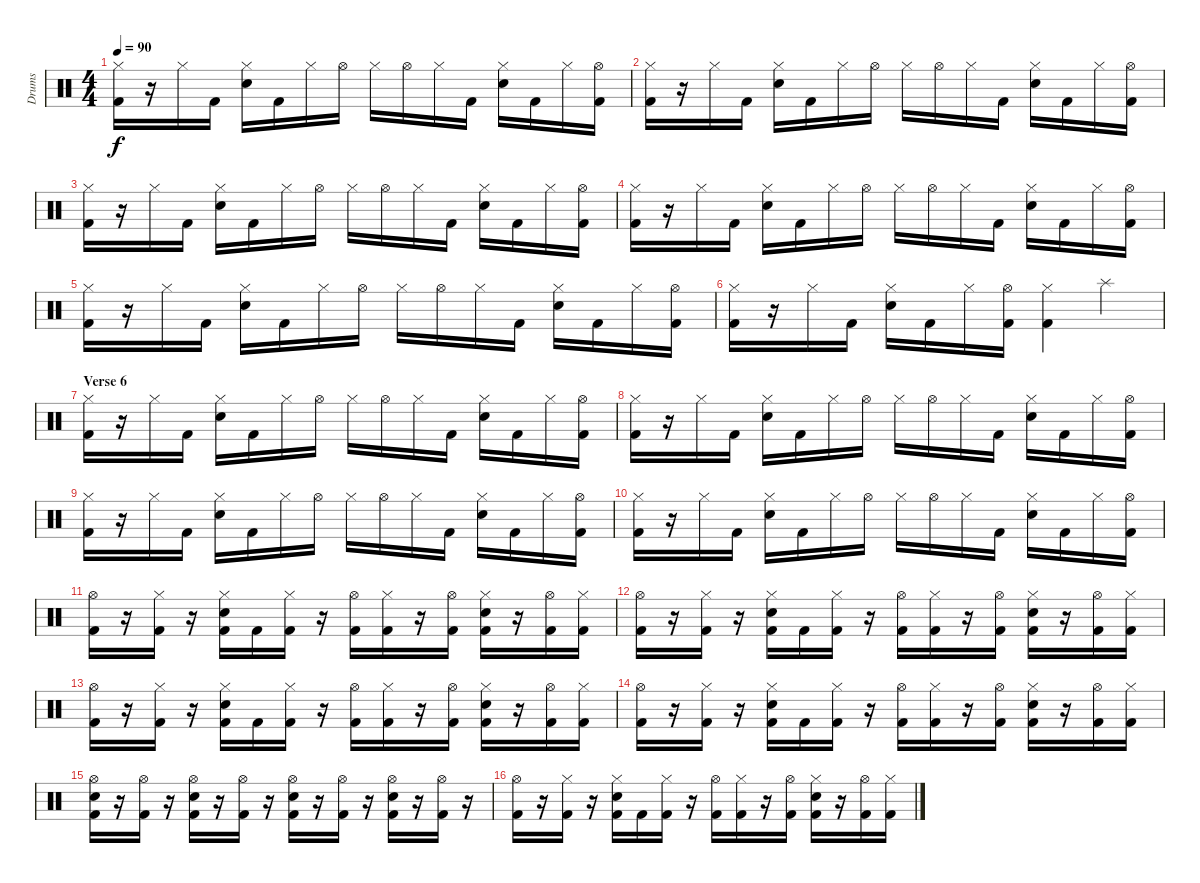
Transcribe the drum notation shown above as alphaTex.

\track ("Drums" "Drums") {instrument percussion}
\staff {score}
\articulation defaults
\ts (4 4)
\tempo 90
\clef neutral
\ks c
("Hi-Hat (closed)" "Kick (hit) 2").16{dy f} r.16 "Hi-Hat (closed)".16 "Kick (hit) 2".16 ("Hi-Hat (closed)" "Snare (hit) 2").16 "Kick (hit) 2".16 "Hi-Hat (closed)".16 "Hi-Hat (open)".16 "Hi-Hat (closed)".16 "Hi-Hat (open)".16 "Hi-Hat (closed)".16 "Kick (hit) 2".16 ("Hi-Hat (closed)" "Snare (hit) 2").16 "Kick (hit) 2".16 "Hi-Hat (closed)".16 ("Hi-Hat (open)" "Kick (hit) 2").16 |
("Hi-Hat (closed)" "Kick (hit) 2").16 r.16 "Hi-Hat (closed)".16 "Kick (hit) 2".16 ("Hi-Hat (closed)" "Snare (hit) 2").16 "Kick (hit) 2".16 "Hi-Hat (closed)".16 "Hi-Hat (open)".16 "Hi-Hat (closed)".16 "Hi-Hat (open)".16 "Hi-Hat (closed)".16 "Kick (hit) 2".16 ("Hi-Hat (closed)" "Snare (hit) 2").16 "Kick (hit) 2".16 "Hi-Hat (closed)".16 ("Hi-Hat (open)" "Kick (hit) 2").16 |
("Hi-Hat (closed)" "Kick (hit) 2").16 r.16 "Hi-Hat (closed)".16 "Kick (hit) 2".16 ("Hi-Hat (closed)" "Snare (hit) 2").16 "Kick (hit) 2".16 "Hi-Hat (closed)".16 "Hi-Hat (open)".16 "Hi-Hat (closed)".16 "Hi-Hat (open)".16 "Hi-Hat (closed)".16 "Kick (hit) 2".16 ("Hi-Hat (closed)" "Snare (hit) 2").16 "Kick (hit) 2".16 "Hi-Hat (closed)".16 ("Hi-Hat (open)" "Kick (hit) 2").16 |
("Hi-Hat (closed)" "Kick (hit) 2").16 r.16 "Hi-Hat (closed)".16 "Kick (hit) 2".16 ("Hi-Hat (closed)" "Snare (hit) 2").16 "Kick (hit) 2".16 "Hi-Hat (closed)".16 "Hi-Hat (open)".16 "Hi-Hat (closed)".16 "Hi-Hat (open)".16 "Hi-Hat (closed)".16 "Kick (hit) 2".16 ("Hi-Hat (closed)" "Snare (hit) 2").16 "Kick (hit) 2".16 "Hi-Hat (closed)".16 ("Hi-Hat (open)" "Kick (hit) 2").16 |
("Hi-Hat (closed)" "Kick (hit) 2").16 r.16 "Hi-Hat (closed)".16 "Kick (hit) 2".16 ("Hi-Hat (closed)" "Snare (hit) 2").16 "Kick (hit) 2".16 "Hi-Hat (closed)".16 "Hi-Hat (open)".16 "Hi-Hat (closed)".16 "Hi-Hat (open)".16 "Hi-Hat (closed)".16 "Kick (hit) 2".16 ("Hi-Hat (closed)" "Snare (hit) 2").16 "Kick (hit) 2".16 "Hi-Hat (closed)".16 ("Hi-Hat (open)" "Kick (hit) 2").16 |
("Hi-Hat (closed)" "Kick (hit) 2").16 r.16 "Hi-Hat (closed)".16 "Kick (hit) 2".16 ("Hi-Hat (closed)" "Snare (hit) 2").16 "Kick (hit) 2".16 "Hi-Hat (closed)".16 ("Hi-Hat (open)" "Kick (hit) 2").16 ("Hi-Hat (closed)" "Kick (hit) 2").4 "Splash (hit)".4 |
\section ("" "Verse 6")
("Hi-Hat (closed)" "Kick (hit) 2").16 r.16 "Hi-Hat (closed)".16 "Kick (hit) 2".16 ("Hi-Hat (closed)" "Snare (hit) 2").16 "Kick (hit) 2".16 "Hi-Hat (closed)".16 "Hi-Hat (open)".16 "Hi-Hat (closed)".16 "Hi-Hat (open)".16 "Hi-Hat (closed)".16 "Kick (hit) 2".16 ("Hi-Hat (closed)" "Snare (hit) 2").16 "Kick (hit) 2".16 "Hi-Hat (closed)".16 ("Hi-Hat (open)" "Kick (hit) 2").16 |
("Hi-Hat (closed)" "Kick (hit) 2").16 r.16 "Hi-Hat (closed)".16 "Kick (hit) 2".16 ("Hi-Hat (closed)" "Snare (hit) 2").16 "Kick (hit) 2".16 "Hi-Hat (closed)".16 "Hi-Hat (open)".16 "Hi-Hat (closed)".16 "Hi-Hat (open)".16 "Hi-Hat (closed)".16 "Kick (hit) 2".16 ("Hi-Hat (closed)" "Snare (hit) 2").16 "Kick (hit) 2".16 "Hi-Hat (closed)".16 ("Hi-Hat (open)" "Kick (hit) 2").16 |
("Hi-Hat (closed)" "Kick (hit) 2").16 r.16 "Hi-Hat (closed)".16 "Kick (hit) 2".16 ("Hi-Hat (closed)" "Snare (hit) 2").16 "Kick (hit) 2".16 "Hi-Hat (closed)".16 "Hi-Hat (open)".16 "Hi-Hat (closed)".16 "Hi-Hat (open)".16 "Hi-Hat (closed)".16 "Kick (hit) 2".16 ("Hi-Hat (closed)" "Snare (hit) 2").16 "Kick (hit) 2".16 "Hi-Hat (closed)".16 ("Hi-Hat (open)" "Kick (hit) 2").16 |
("Hi-Hat (closed)" "Kick (hit) 2").16 r.16 "Hi-Hat (closed)".16 "Kick (hit) 2".16 ("Hi-Hat (closed)" "Snare (hit) 2").16 "Kick (hit) 2".16 "Hi-Hat (closed)".16 "Hi-Hat (open)".16 "Hi-Hat (closed)".16 "Hi-Hat (open)".16 "Hi-Hat (closed)".16 "Kick (hit) 2".16 ("Hi-Hat (closed)" "Snare (hit) 2").16 "Kick (hit) 2".16 "Hi-Hat (closed)".16 ("Hi-Hat (open)" "Kick (hit) 2").16 |
("Hi-Hat (open)" "Kick (hit) 2").16 r.16 ("Hi-Hat (closed)" "Kick (hit) 2").16 r.16 ("Hi-Hat (closed)" "Snare (hit) 2" "Kick (hit) 2").16 "Kick (hit) 2".16 ("Hi-Hat (closed)" "Kick (hit) 2").16 r.16 ("Hi-Hat (open)" "Kick (hit) 2").16 ("Hi-Hat (closed)" "Kick (hit) 2").16 r.16 ("Hi-Hat (open)" "Kick (hit) 2").16 ("Hi-Hat (closed)" "Snare (hit) 2" "Kick (hit) 2").16 r.16 ("Hi-Hat (open)" "Kick (hit) 2").16 ("Hi-Hat (closed)" "Kick (hit) 2").16 |
("Hi-Hat (open)" "Kick (hit) 2").16 r.16 ("Hi-Hat (closed)" "Kick (hit) 2").16 r.16 ("Hi-Hat (closed)" "Snare (hit) 2" "Kick (hit) 2").16 "Kick (hit) 2".16 ("Hi-Hat (closed)" "Kick (hit) 2").16 r.16 ("Hi-Hat (open)" "Kick (hit) 2").16 ("Hi-Hat (closed)" "Kick (hit) 2").16 r.16 ("Hi-Hat (open)" "Kick (hit) 2").16 ("Hi-Hat (closed)" "Snare (hit) 2" "Kick (hit) 2").16 r.16 ("Hi-Hat (open)" "Kick (hit) 2").16 ("Hi-Hat (closed)" "Kick (hit) 2").16 |
("Hi-Hat (open)" "Kick (hit) 2").16 r.16 ("Hi-Hat (closed)" "Kick (hit) 2").16 r.16 ("Hi-Hat (closed)" "Snare (hit) 2" "Kick (hit) 2").16 "Kick (hit) 2".16 ("Hi-Hat (closed)" "Kick (hit) 2").16 r.16 ("Hi-Hat (open)" "Kick (hit) 2").16 ("Hi-Hat (closed)" "Kick (hit) 2").16 r.16 ("Hi-Hat (open)" "Kick (hit) 2").16 ("Hi-Hat (closed)" "Snare (hit) 2" "Kick (hit) 2").16 r.16 ("Hi-Hat (open)" "Kick (hit) 2").16 ("Hi-Hat (closed)" "Kick (hit) 2").16 |
("Hi-Hat (open)" "Kick (hit) 2").16 r.16 ("Hi-Hat (closed)" "Kick (hit) 2").16 r.16 ("Hi-Hat (closed)" "Snare (hit) 2" "Kick (hit) 2").16 "Kick (hit) 2".16 ("Hi-Hat (closed)" "Kick (hit) 2").16 r.16 ("Hi-Hat (open)" "Kick (hit) 2").16 ("Hi-Hat (closed)" "Kick (hit) 2").16 r.16 ("Hi-Hat (open)" "Kick (hit) 2").16 ("Hi-Hat (closed)" "Snare (hit) 2" "Kick (hit) 2").16 r.16 ("Hi-Hat (open)" "Kick (hit) 2").16 ("Hi-Hat (closed)" "Kick (hit) 2").16 |
("Hi-Hat (open)" "Snare (hit) 2" "Kick (hit) 2").16 r.16 ("Hi-Hat (open)" "Kick (hit) 2").16 r.16 ("Hi-Hat (open)" "Snare (hit) 2" "Kick (hit) 2").16 r.16 ("Hi-Hat (open)" "Kick (hit) 2").16 r.16 ("Hi-Hat (open)" "Snare (hit) 2" "Kick (hit) 2").16 r.16 ("Hi-Hat (open)" "Kick (hit) 2").16 r.16 ("Hi-Hat (open)" "Snare (hit) 2" "Kick (hit) 2").16 r.16 ("Hi-Hat (open)" "Kick (hit) 2").16 r.16 |
("Hi-Hat (open)" "Kick (hit) 2").16 r.16 ("Hi-Hat (closed)" "Kick (hit) 2").16 r.16 ("Hi-Hat (closed)" "Snare (hit) 2" "Kick (hit) 2").16 "Kick (hit) 2".16 ("Hi-Hat (closed)" "Kick (hit) 2").16 r.16 ("Hi-Hat (open)" "Kick (hit) 2").16 ("Hi-Hat (closed)" "Kick (hit) 2").16 r.16 ("Hi-Hat (open)" "Kick (hit) 2").16 ("Hi-Hat (closed)" "Snare (hit) 2" "Kick (hit) 2").16 r.16 ("Hi-Hat (open)" "Kick (hit) 2").16 ("Hi-Hat (closed)" "Kick (hit) 2").16
